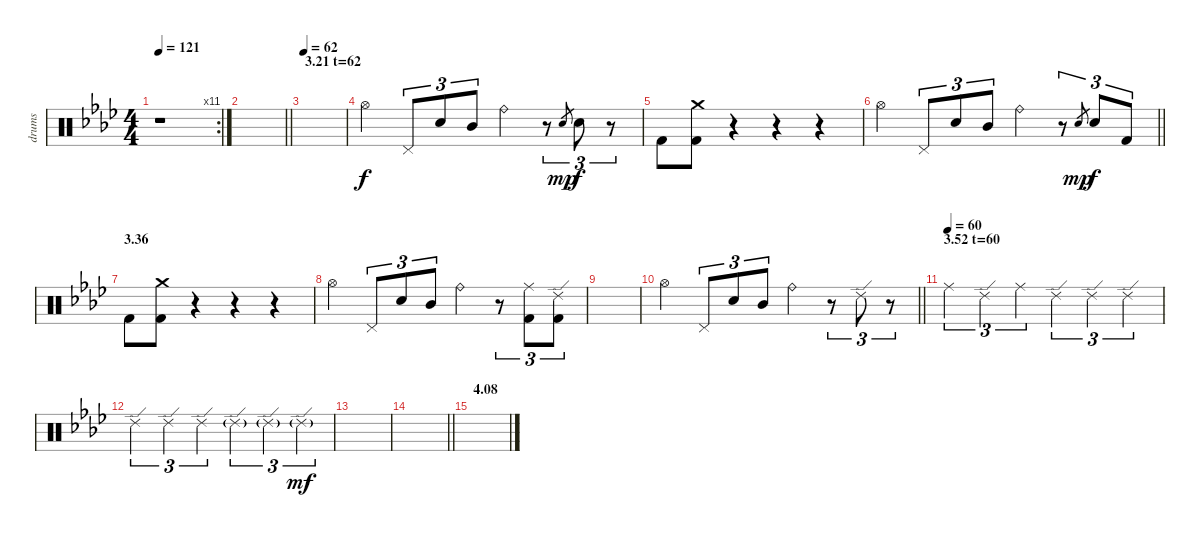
\track ("drums" "drums") {instrument percussion}
\staff {score}
\articulation defaults
\rc 11
\ts (4 4)
\tempo 121
\clef neutral
\ks fminor
r.1{dy ff} |
\barLineRight lightlight
|
\section ("" "3.21 t=62")
\tempo 62
|
"Hi-Hat (open)".4{dy f} "Pedal Hi-Hat (hit)".8{tu (3 2)} "Electric Snare (hit)".8{tu (3 2)} "Mid Tom (hit)".8{tu (3 2)} "Ride (bell)".4 r.8{tu (3 2)} "Electric Snare (hit)".8{gr dy mp} "Electric Snare (hit)".8{tu (3 2) dy f} r.8{tu (3 2)} |
"Kick (hit) 2".8 ("Crash medium (hit)" "Kick (hit) 2").8 r.4 r.4 r.4 |
\barLineRight lightlight "Hi-Hat (open)".4 "Pedal Hi-Hat (hit)".8{tu (3 2)} "Electric Snare (hit)".8{tu (3 2)} "Mid Tom (hit)".8{tu (3 2)} "Ride (bell)".4
r.8{tu (3 2)} "Electric Snare (hit)".8{gr dy mp} "Electric Snare (hit)".8{tu (3 2) dy f} "Kick (hit) 2".8{tu (3 2)} |
\section ("" "3.36")
"Kick (hit) 2".8 ("Crash medium (hit)" "Kick (hit) 2").8 r.4 r.4 r.4 |
"Hi-Hat (open)".4 "Pedal Hi-Hat (hit)".8{tu (3 2)} "Electric Snare (hit)".8{tu (3 2)} "Mid Tom (hit)".8{tu (3 2)} "Ride (bell)".4 r.8{tu (3 2)} ("Ride (middle)" "Kick (hit) 2").8{tu (3 2)} ("Ride (edge) 2" "Kick (hit) 2").8{tu (3 2)} |
|
\barLineRight lightlight "Hi-Hat (open)".4 "Pedal Hi-Hat (hit)".8{tu (3 2)} "Electric Snare (hit)".8{tu (3 2)} "Mid Tom (hit)".8{tu (3 2)} "Ride (bell)".4
r.8{tu (3 2)} "Ride (edge) 2".8{tu (3 2)} r.8{tu (3 2)} |
\section ("" "3.52 t=60")
\tempo (60)
"Ride (middle)".4{tu (3 2)} "Ride (edge) 2".4{tu (3 2)} "Ride (middle)".4{tu (3 2)} "Ride (edge) 2".4{tu (3 2)} "Ride (edge) 2".4{tu (3 2)} "Ride (edge) 2".4{tu (3 2)} |
"Ride (edge) 2".4{tu (3 2)} "Ride (edge) 2".4{tu (3 2)} "Ride (edge) 2".4{tu (3 2)} "Ride (edge) 2"{g}.4{tu (3 2)} "Ride (edge) 2"{g}.4{tu (3 2)} "Ride (edge) 2"{g}.4{tu (3 2) dy mf} |
|
\barLineRight lightlight
|
\section ("" "4.08")
